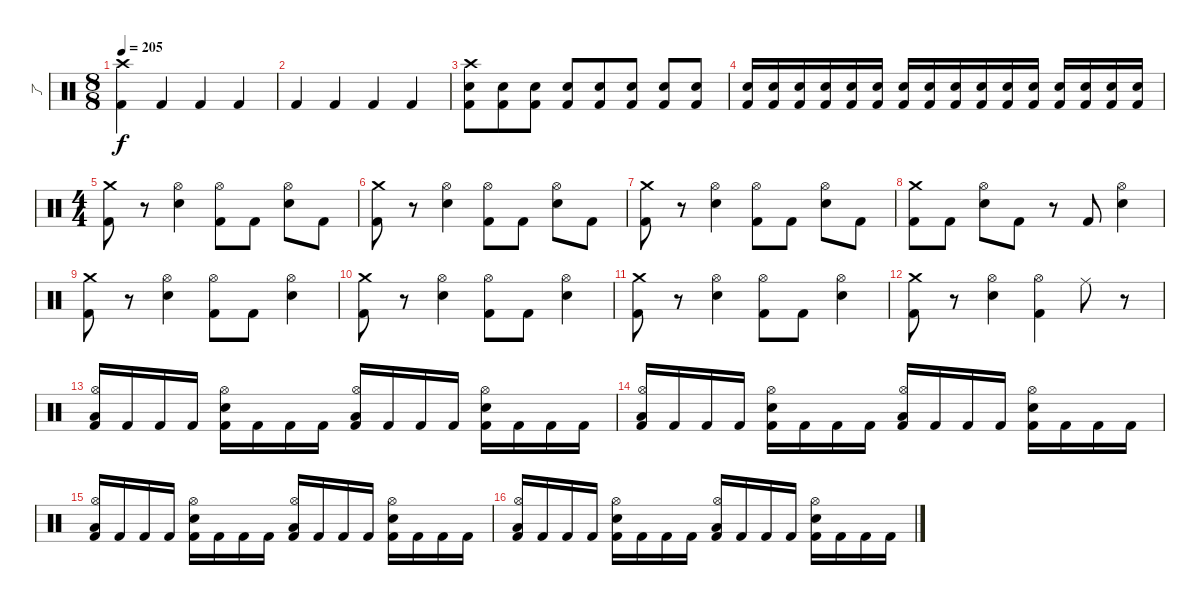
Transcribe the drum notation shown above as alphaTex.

\track ("了" "了") {instrument percussion}
\staff {score}
\articulation defaults
\ts (8 8)
\tempo 205
\clef neutral
\ks c
("Crash high (hit)" "Kick (hit) 2").4{dy f} "Kick (hit) 2".4 "Kick (hit) 2".4 "Kick (hit) 2".4 |
"Kick (hit) 2".4 "Kick (hit) 2".4 "Kick (hit) 2".4 "Kick (hit) 2".4 |
("Crash high (hit)" "Snare (hit) 2" "Kick (hit) 2").8 ("Snare (hit) 2" "Kick (hit) 2").8 ("Snare (hit) 2" "Kick (hit) 2").8 ("Snare (hit) 2" "Kick (hit) 2").8 ("Snare (hit) 2" "Kick (hit) 2").8 ("Snare (hit) 2" "Kick (hit) 2").8 ("Snare (hit) 2" "Kick (hit) 2").8 ("Snare (hit) 2" "Kick (hit) 2").8 |
("Electric Snare (hit)" "Kick (hit) 2").16 ("Electric Snare (hit)" "Kick (hit) 2").16 ("Electric Snare (hit)" "Kick (hit) 2").16 ("Electric Snare (hit)" "Kick (hit) 2").16 ("Snare (hit) 2" "Kick (hit) 2").16 ("Snare (hit) 2" "Kick (hit) 2").16 ("Snare (hit) 2" "Kick (hit) 2").16 ("Snare (hit) 2" "Kick (hit) 2").16 ("Electric Snare (hit)" "Kick (hit) 2").16 ("Electric Snare (hit)" "Kick (hit) 2").16 ("Electric Snare (hit)" "Kick (hit) 2").16 ("Electric Snare (hit)" "Kick (hit) 2").16 ("Snare (hit) 2" "Kick (hit) 2").16 ("Snare (hit) 2" "Kick (hit) 2").16 ("Snare (hit) 2" "Kick (hit) 2").16 ("Snare (hit) 2" "Kick (hit) 2").16 |
\ts (4 4)
("Kick (hit) 2" "Crash medium (hit)").8 r.8 ("Hi-Hat (open)" "Electric Snare (hit)").4 ("Hi-Hat (open)" "Kick (hit) 2").8 "Kick (hit) 2".8 ("Hi-Hat (open)" "Electric Snare (hit)").8 "Kick (hit) 2".8 |
("Kick (hit) 2" "Crash medium (hit)").8 r.8 ("Hi-Hat (open)" "Electric Snare (hit)").4 ("Hi-Hat (open)" "Kick (hit) 2").8 "Kick (hit) 2".8 ("Hi-Hat (open)" "Electric Snare (hit)").8 "Kick (hit) 2".8 |
("Kick (hit) 2" "Crash medium (hit)").8 r.8 ("Hi-Hat (open)" "Electric Snare (hit)").4 ("Hi-Hat (open)" "Kick (hit) 2").8 "Kick (hit) 2".8 ("Hi-Hat (open)" "Electric Snare (hit)").8 "Kick (hit) 2".8 |
("Kick (hit) 2" "Crash medium (hit)").8 "Kick (hit) 2".8 ("Hi-Hat (open)" "Electric Snare (hit)").8 "Kick (hit) 2".8 r.8 "Kick (hit) 2".8 ("Hi-Hat (open)" "Electric Snare (hit)").4 |
("Kick (hit) 2" "Crash medium (hit)").8 r.8 ("Hi-Hat (open)" "Electric Snare (hit)").4 ("Hi-Hat (open)" "Kick (hit) 2").8 "Kick (hit) 2".8 ("Hi-Hat (open)" "Electric Snare (hit)").4 |
("Kick (hit) 2" "Crash medium (hit)").8 r.8 ("Hi-Hat (open)" "Electric Snare (hit)").4 ("Hi-Hat (open)" "Kick (hit) 2").8 "Kick (hit) 2".8 ("Hi-Hat (open)" "Electric Snare (hit)").4 |
("Kick (hit) 2" "Crash medium (hit)").8 r.8 ("Hi-Hat (open)" "Electric Snare (hit)").4 ("Hi-Hat (open)" "Kick (hit) 2").8 "Kick (hit) 2".8 ("Hi-Hat (open)" "Electric Snare (hit)").4 |
("Kick (hit) 2" "Crash medium (hit)").8 r.8 ("Hi-Hat (open)" "Electric Snare (hit)").4 ("Hi-Hat (open)" "Kick (hit) 2").4 "Ride (middle)".8 r.8 |
("Hi-Hat (open)" "Low Tom (hit)" "Kick (hit) 2").16 "Kick (hit) 2".16 "Kick (hit) 2".16 "Kick (hit) 2".16 ("Hi-Hat (open)" "Snare (hit) 2" "Kick (hit) 2").16 "Kick (hit) 2".16 "Kick (hit) 2".16 "Kick (hit) 2".16 ("Hi-Hat (open)" "Low Tom (hit)" "Kick (hit) 2").16 "Kick (hit) 2".16 "Kick (hit) 2".16 "Kick (hit) 2".16 ("Hi-Hat (open)" "Snare (hit) 2" "Kick (hit) 2").16 "Kick (hit) 2".16 "Kick (hit) 2".16 "Kick (hit) 2".16 |
("Hi-Hat (open)" "Low Tom (hit)" "Kick (hit) 2").16 "Kick (hit) 2".16 "Kick (hit) 2".16 "Kick (hit) 2".16 ("Hi-Hat (open)" "Snare (hit) 2" "Kick (hit) 2").16 "Kick (hit) 2".16 "Kick (hit) 2".16 "Kick (hit) 2".16 ("Hi-Hat (open)" "Low Tom (hit)" "Kick (hit) 2").16 "Kick (hit) 2".16 "Kick (hit) 2".16 "Kick (hit) 2".16 ("Hi-Hat (open)" "Snare (hit) 2" "Kick (hit) 2").16 "Kick (hit) 2".16 "Kick (hit) 2".16 "Kick (hit) 2".16 |
("Hi-Hat (open)" "Low Tom (hit)" "Kick (hit) 2").16 "Kick (hit) 2".16 "Kick (hit) 2".16 "Kick (hit) 2".16 ("Hi-Hat (open)" "Snare (hit) 2" "Kick (hit) 2").16 "Kick (hit) 2".16 "Kick (hit) 2".16 "Kick (hit) 2".16 ("Hi-Hat (open)" "Low Tom (hit)" "Kick (hit) 2").16 "Kick (hit) 2".16 "Kick (hit) 2".16 "Kick (hit) 2".16 ("Hi-Hat (open)" "Snare (hit) 2" "Kick (hit) 2").16 "Kick (hit) 2".16 "Kick (hit) 2".16 "Kick (hit) 2".16 |
("Hi-Hat (open)" "Low Tom (hit)" "Kick (hit) 2").16 "Kick (hit) 2".16 "Kick (hit) 2".16 "Kick (hit) 2".16 ("Hi-Hat (open)" "Snare (hit) 2" "Kick (hit) 2").16 "Kick (hit) 2".16 "Kick (hit) 2".16 "Kick (hit) 2".16 ("Hi-Hat (open)" "Low Tom (hit)" "Kick (hit) 2").16 "Kick (hit) 2".16 "Kick (hit) 2".16 "Kick (hit) 2".16 ("Hi-Hat (open)" "Snare (hit) 2" "Kick (hit) 2").16 "Kick (hit) 2".16 "Kick (hit) 2".16 "Kick (hit) 2".16
